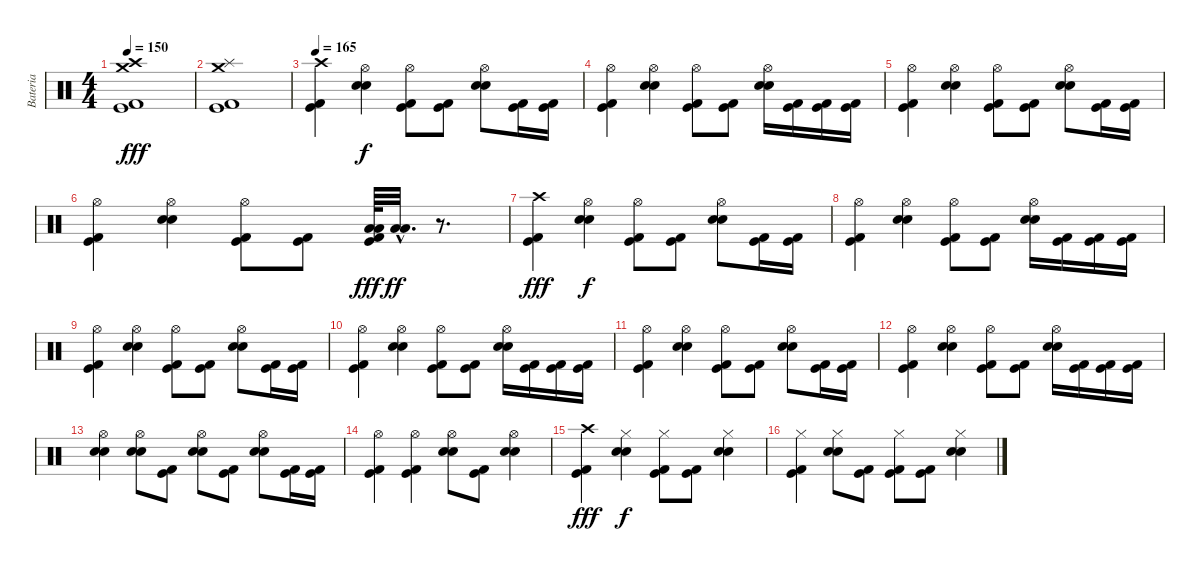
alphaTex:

\track ("Bateria" "Bateria") {instrument percussion}
\staff {score}
\articulation defaults
\ts (4 4)
\tempo 150
\clef neutral
\ks c
("Crash high (hit)" "Crash medium (hit)" "Kick (hit) 2" "Kick (hit)").1{dy fff} |
("Crash medium (hit)" "Splash (hit)" "Kick (hit) 2" "Kick (hit)").1 |
\tempo 165
("Crash high (hit)" "Kick (hit) 2" "Kick (hit)").4 ("Hi-Hat (open)" "Electric Snare (hit)" "Snare (hit) 2").4{dy f} ("Hi-Hat (open)" "Kick (hit) 2" "Kick (hit)").8 ("Kick (hit) 2" "Kick (hit)").8 ("Hi-Hat (open)" "Electric Snare (hit)" "Snare (hit) 2").8 ("Kick (hit) 2" "Kick (hit)").16 ("Kick (hit) 2" "Kick (hit)").16 |
("Hi-Hat (open)" "Kick (hit) 2" "Kick (hit)").4 ("Hi-Hat (open)" "Electric Snare (hit)" "Snare (hit) 2").4 ("Hi-Hat (open)" "Kick (hit) 2" "Kick (hit)").8 ("Kick (hit) 2" "Kick (hit)").8 ("Hi-Hat (open)" "Electric Snare (hit)" "Snare (hit) 2").16 ("Kick (hit) 2" "Kick (hit)").16 ("Kick (hit) 2" "Kick (hit)").16 ("Kick (hit) 2" "Kick (hit)").16 |
("Hi-Hat (open)" "Kick (hit) 2" "Kick (hit)").4 ("Hi-Hat (open)" "Electric Snare (hit)" "Snare (hit) 2").4 ("Hi-Hat (open)" "Kick (hit) 2" "Kick (hit)").8 ("Kick (hit) 2" "Kick (hit)").8 ("Hi-Hat (open)" "Electric Snare (hit)" "Snare (hit) 2").8 ("Kick (hit) 2" "Kick (hit)").16 ("Kick (hit) 2" "Kick (hit)").16 |
("Hi-Hat (open)" "Kick (hit) 2" "Kick (hit)").4 ("Hi-Hat (open)" "Electric Snare (hit)" "Snare (hit) 2").4 ("Hi-Hat (open)" "Kick (hit) 2" "Kick (hit)").8 ("Kick (hit) 2" "Kick (hit)").8 ("Low Tom (hit)" "Low Floor Tom (hit)" "Kick (hit) 2" "Kick (hit)").64{dy fff} ("Low Tom (hit)"{hac} "Low Floor Tom (hit)"{hac}).32{d dy ff} r.8{d} |
("Crash high (hit)" "Kick (hit) 2" "Kick (hit)").4{dy fff} ("Hi-Hat (open)" "Electric Snare (hit)" "Snare (hit) 2").4{dy f} ("Hi-Hat (open)" "Kick (hit) 2" "Kick (hit)").8 ("Kick (hit) 2" "Kick (hit)").8 ("Hi-Hat (open)" "Electric Snare (hit)" "Snare (hit) 2").8 ("Kick (hit) 2" "Kick (hit)").16 ("Kick (hit) 2" "Kick (hit)").16 |
("Hi-Hat (open)" "Kick (hit) 2" "Kick (hit)").4 ("Hi-Hat (open)" "Electric Snare (hit)" "Snare (hit) 2").4 ("Hi-Hat (open)" "Kick (hit) 2" "Kick (hit)").8 ("Kick (hit) 2" "Kick (hit)").8 ("Hi-Hat (open)" "Electric Snare (hit)" "Snare (hit) 2").16 ("Kick (hit) 2" "Kick (hit)").16 ("Kick (hit) 2" "Kick (hit)").16 ("Kick (hit) 2" "Kick (hit)").16 |
("Hi-Hat (open)" "Kick (hit) 2" "Kick (hit)").4 ("Hi-Hat (open)" "Electric Snare (hit)" "Snare (hit) 2").4 ("Hi-Hat (open)" "Kick (hit) 2" "Kick (hit)").8 ("Kick (hit) 2" "Kick (hit)").8 ("Hi-Hat (open)" "Electric Snare (hit)" "Snare (hit) 2").8 ("Kick (hit) 2" "Kick (hit)").16 ("Kick (hit) 2" "Kick (hit)").16 |
("Hi-Hat (open)" "Kick (hit) 2" "Kick (hit)").4 ("Hi-Hat (open)" "Electric Snare (hit)" "Snare (hit) 2").4 ("Hi-Hat (open)" "Kick (hit) 2" "Kick (hit)").8 ("Kick (hit) 2" "Kick (hit)").8 ("Hi-Hat (open)" "Electric Snare (hit)" "Snare (hit) 2").16 ("Kick (hit) 2" "Kick (hit)").16 ("Kick (hit) 2" "Kick (hit)").16 ("Kick (hit) 2" "Kick (hit)").16 |
("Hi-Hat (open)" "Kick (hit) 2" "Kick (hit)").4 ("Hi-Hat (open)" "Electric Snare (hit)" "Snare (hit) 2").4 ("Hi-Hat (open)" "Kick (hit) 2" "Kick (hit)").8 ("Kick (hit) 2" "Kick (hit)").8 ("Hi-Hat (open)" "Electric Snare (hit)" "Snare (hit) 2").8 ("Kick (hit) 2" "Kick (hit)").16 ("Kick (hit) 2" "Kick (hit)").16 |
("Hi-Hat (open)" "Kick (hit) 2" "Kick (hit)").4 ("Hi-Hat (open)" "Electric Snare (hit)" "Snare (hit) 2").4 ("Hi-Hat (open)" "Kick (hit) 2" "Kick (hit)").8 ("Kick (hit) 2" "Kick (hit)").8 ("Hi-Hat (open)" "Electric Snare (hit)" "Snare (hit) 2").16 ("Kick (hit) 2" "Kick (hit)").16 ("Kick (hit) 2" "Kick (hit)").16 ("Kick (hit) 2" "Kick (hit)").16 |
("Hi-Hat (open)" "Electric Snare (hit)" "Snare (hit) 2").4 ("Hi-Hat (open)" "Electric Snare (hit)" "Snare (hit) 2").8 ("Kick (hit) 2" "Kick (hit)").8 ("Hi-Hat (open)" "Electric Snare (hit)" "Snare (hit) 2").8 ("Kick (hit) 2" "Kick (hit)").8 ("Hi-Hat (open)" "Electric Snare (hit)" "Snare (hit) 2").8 ("Kick (hit) 2" "Kick (hit)").16 ("Kick (hit) 2" "Kick (hit)").16 |
("Hi-Hat (open)" "Kick (hit) 2" "Kick (hit)").4 ("Hi-Hat (open)" "Kick (hit) 2" "Kick (hit)").4 ("Hi-Hat (open)" "Electric Snare (hit)" "Snare (hit) 2").8 ("Kick (hit) 2" "Kick (hit)").8 ("Hi-Hat (open)" "Electric Snare (hit)" "Snare (hit) 2").4 |
("Crash high (hit)" "Kick (hit) 2" "Kick (hit)").4{dy fff} ("Hi-Hat (closed)" "Electric Snare (hit)" "Snare (hit) 2").4{dy f} ("Hi-Hat (closed)" "Kick (hit) 2" "Kick (hit)").8 ("Kick (hit) 2" "Kick (hit)").8 ("Hi-Hat (closed)" "Electric Snare (hit)" "Snare (hit) 2").4 |
("Hi-Hat (closed)" "Kick (hit) 2" "Kick (hit)").4 ("Hi-Hat (closed)" "Electric Snare (hit)" "Snare (hit) 2").8 ("Kick (hit) 2" "Kick (hit)").8 ("Hi-Hat (closed)" "Kick (hit) 2" "Kick (hit)").8 ("Kick (hit) 2" "Kick (hit)").8 ("Hi-Hat (closed)" "Electric Snare (hit)" "Snare (hit) 2").4
